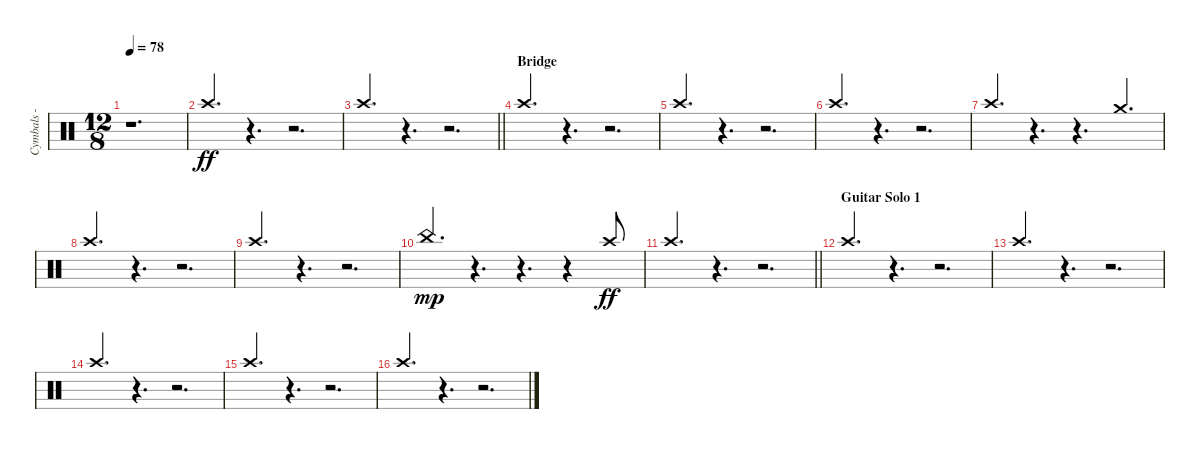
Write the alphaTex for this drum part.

\track ("Cymbals - crash" "Cymbals - ") {instrument percussion}
\staff {score}
\articulation defaults
\ts (12 8)
\tempo 78
\clef neutral
\ks c
r.1{d dy ff} |
"Crash high (hit)".4{d beam Up} r.4{d} r.2{d} |
\barLineRight lightlight "Crash high (hit)".4{d beam Up}
r.4{d} r.2{d} |
\section ("" "Bridge")
"Crash high (hit)".4{d beam Up} r.4{d} r.2{d} |
"Crash high (hit)".4{d beam Up} r.4{d} r.2{d} |
"Crash high (hit)".4{d beam Up} r.4{d} r.2{d} |
"Crash high (hit)".4{d beam Up} r.4{d} r.4{d} "Crash medium (hit)".4{d beam Up} |
"Crash high (hit)".4{d beam Up} r.4{d} r.2{d} |
"Crash high (hit)".4{d beam Up} r.4{d} r.2{d} |
"China (hit)".4{d dy mp balance 4 beam Up} r.4{d} r.4{d} r.4{balance 8} "Crash high (hit)".8{dy ff beam Up} |
\barLineRight lightlight "Crash high (hit)".4{d beam Up}
r.4{d} r.2{d} |
\section ("" "Guitar Solo 1")
"Crash high (hit)".4{d beam Up} r.4{d} r.2{d} |
"Crash high (hit)".4{d beam Up} r.4{d} r.2{d} |
"Crash high (hit)".4{d beam Up} r.4{d} r.2{d} |
"Crash high (hit)".4{d beam Up} r.4{d} r.2{d} |
"Crash high (hit)".4{d beam Up} r.4{d} r.2{d}
